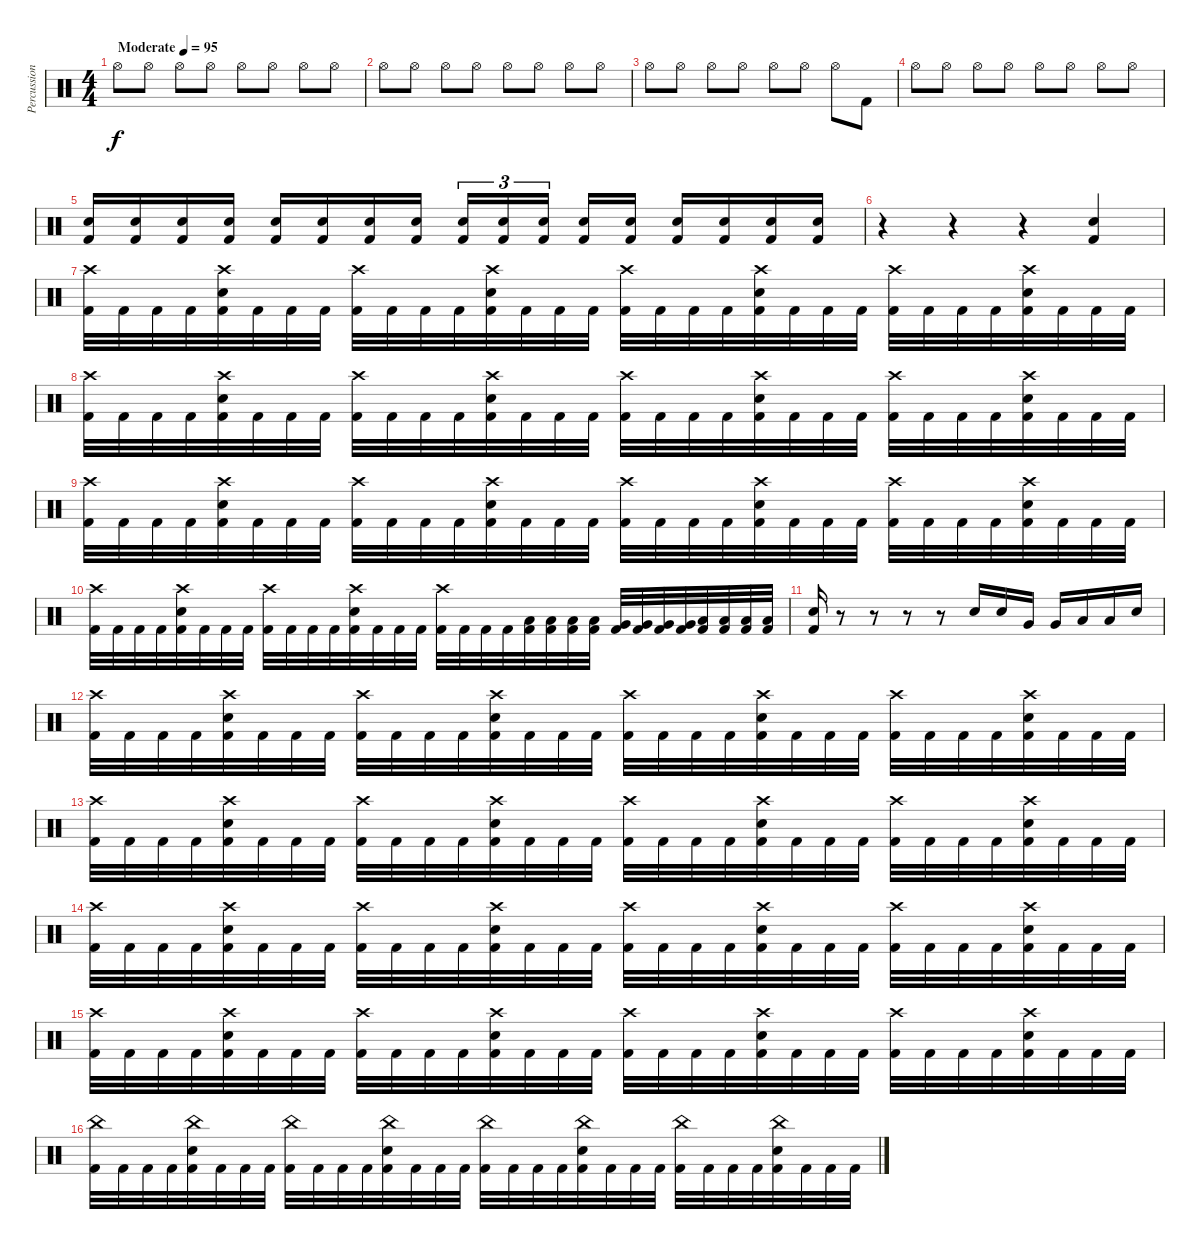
\track ("Percussion" "Percussion") {instrument percussion}
\staff {score}
\articulation defaults
\ts (4 4)
\tempo (95 "Moderate")
\clef neutral
\ks c "Hi-Hat (open)".8{dy f} "Hi-Hat (open)".8 "Hi-Hat (open)".8 "Hi-Hat (open)".8 "Hi-Hat (open)".8 "Hi-Hat (open)".8 "Hi-Hat (open)".8 "Hi-Hat (open)".8
|
"Hi-Hat (open)".8 "Hi-Hat (open)".8 "Hi-Hat (open)".8 "Hi-Hat (open)".8 "Hi-Hat (open)".8 "Hi-Hat (open)".8 "Hi-Hat (open)".8 "Hi-Hat (open)".8 |
"Hi-Hat (open)".8 "Hi-Hat (open)".8 "Hi-Hat (open)".8 "Hi-Hat (open)".8 "Hi-Hat (open)".8 "Hi-Hat (open)".8 "Hi-Hat (open)".8 "Kick (hit) 2".8 |
"Hi-Hat (open)".8 "Hi-Hat (open)".8 "Hi-Hat (open)".8 "Hi-Hat (open)".8 "Hi-Hat (open)".8 "Hi-Hat (open)".8 "Hi-Hat (open)".8 "Hi-Hat (open)".8 |
("Snare (hit) 2" "Kick (hit) 2").16 ("Snare (hit) 2" "Kick (hit) 2").16 ("Snare (hit) 2" "Kick (hit) 2").16 ("Snare (hit) 2" "Kick (hit) 2").16 ("Snare (hit) 2" "Kick (hit) 2").16 ("Snare (hit) 2" "Kick (hit) 2").16 ("Snare (hit) 2" "Kick (hit) 2").16 ("Snare (hit) 2" "Kick (hit) 2").16 ("Snare (hit) 2" "Kick (hit) 2").16{tu (3 2)} ("Snare (hit) 2" "Kick (hit) 2").16{tu (3 2)} ("Snare (hit) 2" "Kick (hit) 2").16{tu (3 2) beam splitsecondary} ("Snare (hit) 2" "Kick (hit) 2").16 ("Snare (hit) 2" "Kick (hit) 2").16 ("Snare (hit) 2" "Kick (hit) 2").16 ("Snare (hit) 2" "Kick (hit) 2").16 ("Snare (hit) 2" "Kick (hit) 2").16 ("Snare (hit) 2" "Kick (hit) 2").16 |
r.4 r.4 r.4 ("Snare (hit) 2" "Kick (hit) 2").4 |
("Crash high (hit)" "Kick (hit) 2").32 "Kick (hit) 2".32 "Kick (hit) 2".32 "Kick (hit) 2".32 ("Crash high (hit)" "Snare (hit) 2" "Kick (hit) 2").32 "Kick (hit) 2".32 "Kick (hit) 2".32 "Kick (hit) 2".32 ("Crash high (hit)" "Kick (hit) 2").32 "Kick (hit) 2".32 "Kick (hit) 2".32 "Kick (hit) 2".32 ("Crash high (hit)" "Snare (hit) 2" "Kick (hit) 2").32 "Kick (hit) 2".32 "Kick (hit) 2".32 "Kick (hit) 2".32 ("Crash high (hit)" "Kick (hit) 2").32 "Kick (hit) 2".32 "Kick (hit) 2".32 "Kick (hit) 2".32 ("Crash high (hit)" "Snare (hit) 2" "Kick (hit) 2").32 "Kick (hit) 2".32 "Kick (hit) 2".32 "Kick (hit) 2".32 ("Crash high (hit)" "Kick (hit) 2").32 "Kick (hit) 2".32 "Kick (hit) 2".32 "Kick (hit) 2".32 ("Crash high (hit)" "Snare (hit) 2" "Kick (hit) 2").32 "Kick (hit) 2".32 "Kick (hit) 2".32 "Kick (hit) 2".32 |
("Crash high (hit)" "Kick (hit) 2").32 "Kick (hit) 2".32 "Kick (hit) 2".32 "Kick (hit) 2".32 ("Crash high (hit)" "Snare (hit) 2" "Kick (hit) 2").32 "Kick (hit) 2".32 "Kick (hit) 2".32 "Kick (hit) 2".32 ("Crash high (hit)" "Kick (hit) 2").32 "Kick (hit) 2".32 "Kick (hit) 2".32 "Kick (hit) 2".32 ("Crash high (hit)" "Snare (hit) 2" "Kick (hit) 2").32 "Kick (hit) 2".32 "Kick (hit) 2".32 "Kick (hit) 2".32 ("Crash high (hit)" "Kick (hit) 2").32 "Kick (hit) 2".32 "Kick (hit) 2".32 "Kick (hit) 2".32 ("Crash high (hit)" "Snare (hit) 2" "Kick (hit) 2").32 "Kick (hit) 2".32 "Kick (hit) 2".32 "Kick (hit) 2".32 ("Crash high (hit)" "Kick (hit) 2").32 "Kick (hit) 2".32 "Kick (hit) 2".32 "Kick (hit) 2".32 ("Crash high (hit)" "Snare (hit) 2" "Kick (hit) 2").32 "Kick (hit) 2".32 "Kick (hit) 2".32 "Kick (hit) 2".32 |
("Crash high (hit)" "Kick (hit) 2").32 "Kick (hit) 2".32 "Kick (hit) 2".32 "Kick (hit) 2".32 ("Crash high (hit)" "Snare (hit) 2" "Kick (hit) 2").32 "Kick (hit) 2".32 "Kick (hit) 2".32 "Kick (hit) 2".32 ("Crash high (hit)" "Kick (hit) 2").32 "Kick (hit) 2".32 "Kick (hit) 2".32 "Kick (hit) 2".32 ("Crash high (hit)" "Snare (hit) 2" "Kick (hit) 2").32 "Kick (hit) 2".32 "Kick (hit) 2".32 "Kick (hit) 2".32 ("Crash high (hit)" "Kick (hit) 2").32 "Kick (hit) 2".32 "Kick (hit) 2".32 "Kick (hit) 2".32 ("Crash high (hit)" "Snare (hit) 2" "Kick (hit) 2").32 "Kick (hit) 2".32 "Kick (hit) 2".32 "Kick (hit) 2".32 ("Crash high (hit)" "Kick (hit) 2").32 "Kick (hit) 2".32 "Kick (hit) 2".32 "Kick (hit) 2".32 ("Crash high (hit)" "Snare (hit) 2" "Kick (hit) 2").32 "Kick (hit) 2".32 "Kick (hit) 2".32 "Kick (hit) 2".32 |
("Crash high (hit)" "Kick (hit) 2").32 "Kick (hit) 2".32 "Kick (hit) 2".32 "Kick (hit) 2".32 ("Crash high (hit)" "Snare (hit) 2" "Kick (hit) 2").32 "Kick (hit) 2".32 "Kick (hit) 2".32 "Kick (hit) 2".32 ("Crash high (hit)" "Kick (hit) 2").32 "Kick (hit) 2".32 "Kick (hit) 2".32 "Kick (hit) 2".32 ("Crash high (hit)" "Snare (hit) 2" "Kick (hit) 2").32 "Kick (hit) 2".32 "Kick (hit) 2".32 "Kick (hit) 2".32 ("Crash high (hit)" "Kick (hit) 2").32 "Kick (hit) 2".32 "Kick (hit) 2".32 "Kick (hit) 2".32 ("Low Floor Tom (hit)" "Kick (hit) 2").32 ("Low Floor Tom (hit)" "Kick (hit) 2").32 ("Low Floor Tom (hit)" "Kick (hit) 2").32 ("Low Floor Tom (hit)" "Kick (hit) 2").32 ("Very Low Tom (hit)" "Kick (hit) 2").32 ("Very Low Tom (hit)" "Kick (hit) 2").32 ("Very Low Tom (hit)" "Kick (hit) 2").32 ("Very Low Tom (hit)" "Kick (hit) 2").32 ("Low Tom (hit)" "Kick (hit) 2").32 ("Low Tom (hit)" "Kick (hit) 2").32 ("Low Tom (hit)" "Kick (hit) 2").32 ("Low Tom (hit)" "Kick (hit) 2").32 |
("Snare (hit) 2" "Kick (hit) 2").16 r.8 r.8 r.8 r.8 "Snare (hit) 2".16 "Snare (hit) 2".16 "Very Low Tom (hit)".16 "Very Low Tom (hit)".16 "Low Floor Tom (hit)".16 "Low Floor Tom (hit)".16 "Snare (hit) 2".16 |
("Crash high (hit)" "Kick (hit) 2").32 "Kick (hit) 2".32 "Kick (hit) 2".32 "Kick (hit) 2".32 ("Crash high (hit)" "Snare (hit) 2" "Kick (hit) 2").32 "Kick (hit) 2".32 "Kick (hit) 2".32 "Kick (hit) 2".32 ("Crash high (hit)" "Kick (hit) 2").32 "Kick (hit) 2".32 "Kick (hit) 2".32 "Kick (hit) 2".32 ("Crash high (hit)" "Snare (hit) 2" "Kick (hit) 2").32 "Kick (hit) 2".32 "Kick (hit) 2".32 "Kick (hit) 2".32 ("Crash high (hit)" "Kick (hit) 2").32 "Kick (hit) 2".32 "Kick (hit) 2".32 "Kick (hit) 2".32 ("Crash high (hit)" "Snare (hit) 2" "Kick (hit) 2").32 "Kick (hit) 2".32 "Kick (hit) 2".32 "Kick (hit) 2".32 ("Crash high (hit)" "Kick (hit) 2").32 "Kick (hit) 2".32 "Kick (hit) 2".32 "Kick (hit) 2".32 ("Crash high (hit)" "Snare (hit) 2" "Kick (hit) 2").32 "Kick (hit) 2".32 "Kick (hit) 2".32 "Kick (hit) 2".32 |
("Crash high (hit)" "Kick (hit) 2").32 "Kick (hit) 2".32 "Kick (hit) 2".32 "Kick (hit) 2".32 ("Crash high (hit)" "Snare (hit) 2" "Kick (hit) 2").32 "Kick (hit) 2".32 "Kick (hit) 2".32 "Kick (hit) 2".32 ("Crash high (hit)" "Kick (hit) 2").32 "Kick (hit) 2".32 "Kick (hit) 2".32 "Kick (hit) 2".32 ("Crash high (hit)" "Snare (hit) 2" "Kick (hit) 2").32 "Kick (hit) 2".32 "Kick (hit) 2".32 "Kick (hit) 2".32 ("Crash high (hit)" "Kick (hit) 2").32 "Kick (hit) 2".32 "Kick (hit) 2".32 "Kick (hit) 2".32 ("Crash high (hit)" "Snare (hit) 2" "Kick (hit) 2").32 "Kick (hit) 2".32 "Kick (hit) 2".32 "Kick (hit) 2".32 ("Crash high (hit)" "Kick (hit) 2").32 "Kick (hit) 2".32 "Kick (hit) 2".32 "Kick (hit) 2".32 ("Crash high (hit)" "Snare (hit) 2" "Kick (hit) 2").32 "Kick (hit) 2".32 "Kick (hit) 2".32 "Kick (hit) 2".32 |
("Crash high (hit)" "Kick (hit) 2").32 "Kick (hit) 2".32 "Kick (hit) 2".32 "Kick (hit) 2".32 ("Crash high (hit)" "Snare (hit) 2" "Kick (hit) 2").32 "Kick (hit) 2".32 "Kick (hit) 2".32 "Kick (hit) 2".32 ("Crash high (hit)" "Kick (hit) 2").32 "Kick (hit) 2".32 "Kick (hit) 2".32 "Kick (hit) 2".32 ("Crash high (hit)" "Snare (hit) 2" "Kick (hit) 2").32 "Kick (hit) 2".32 "Kick (hit) 2".32 "Kick (hit) 2".32 ("Crash high (hit)" "Kick (hit) 2").32 "Kick (hit) 2".32 "Kick (hit) 2".32 "Kick (hit) 2".32 ("Crash high (hit)" "Snare (hit) 2" "Kick (hit) 2").32 "Kick (hit) 2".32 "Kick (hit) 2".32 "Kick (hit) 2".32 ("Crash high (hit)" "Kick (hit) 2").32 "Kick (hit) 2".32 "Kick (hit) 2".32 "Kick (hit) 2".32 ("Crash high (hit)" "Snare (hit) 2" "Kick (hit) 2").32 "Kick (hit) 2".32 "Kick (hit) 2".32 "Kick (hit) 2".32 |
("Crash high (hit)" "Kick (hit) 2").32 "Kick (hit) 2".32 "Kick (hit) 2".32 "Kick (hit) 2".32 ("Crash high (hit)" "Snare (hit) 2" "Kick (hit) 2").32 "Kick (hit) 2".32 "Kick (hit) 2".32 "Kick (hit) 2".32 ("Crash high (hit)" "Kick (hit) 2").32 "Kick (hit) 2".32 "Kick (hit) 2".32 "Kick (hit) 2".32 ("Crash high (hit)" "Snare (hit) 2" "Kick (hit) 2").32 "Kick (hit) 2".32 "Kick (hit) 2".32 "Kick (hit) 2".32 ("Crash high (hit)" "Kick (hit) 2").32 "Kick (hit) 2".32 "Kick (hit) 2".32 "Kick (hit) 2".32 ("Crash high (hit)" "Snare (hit) 2" "Kick (hit) 2").32 "Kick (hit) 2".32 "Kick (hit) 2".32 "Kick (hit) 2".32 ("Crash high (hit)" "Kick (hit) 2").32 "Kick (hit) 2".32 "Kick (hit) 2".32 "Kick (hit) 2".32 ("Crash high (hit)" "Snare (hit) 2" "Kick (hit) 2").32 "Kick (hit) 2".32 "Kick (hit) 2".32 "Kick (hit) 2".32 |
("China (hit)" "Kick (hit) 2").32 "Kick (hit) 2".32 "Kick (hit) 2".32 "Kick (hit) 2".32 ("China (hit)" "Snare (hit) 2" "Kick (hit) 2").32 "Kick (hit) 2".32 "Kick (hit) 2".32 "Kick (hit) 2".32 ("China (hit)" "Kick (hit) 2").32 "Kick (hit) 2".32 "Kick (hit) 2".32 "Kick (hit) 2".32 ("China (hit)" "Snare (hit) 2" "Kick (hit) 2").32 "Kick (hit) 2".32 "Kick (hit) 2".32 "Kick (hit) 2".32 ("China (hit)" "Kick (hit) 2").32 "Kick (hit) 2".32 "Kick (hit) 2".32 "Kick (hit) 2".32 ("China (hit)" "Snare (hit) 2" "Kick (hit) 2").32 "Kick (hit) 2".32 "Kick (hit) 2".32 "Kick (hit) 2".32 ("China (hit)" "Kick (hit) 2").32 "Kick (hit) 2".32 "Kick (hit) 2".32 "Kick (hit) 2".32 ("China (hit)" "Snare (hit) 2" "Kick (hit) 2").32 "Kick (hit) 2".32 "Kick (hit) 2".32 "Kick (hit) 2".32
